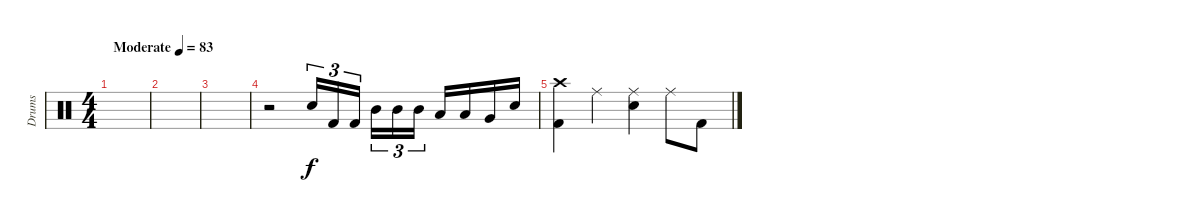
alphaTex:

\track ("Drums" "Drums") {instrument percussion}
\staff
\articulation defaults
\ts (4 4)
\tempo (83 "Moderate")
\clef neutral
\ks c
|
|
|
r.2 "Electric Snare (hit)".16{tu (3 2)} "Kick (hit) 2".16{tu (3 2)} "Kick (hit) 2".16{tu (3 2) beam splitsecondary} "Mid Tom (hit)".16{tu (3 2)} "Mid Tom (hit)".16{tu (3 2)} "Mid Tom (hit)".16{tu (3 2)} "Low Tom (hit)".16 "Low Tom (hit)".16 "Very Low Tom (hit)".16 "Electric Snare (hit)".16 |
("Crash high (hit)" "Kick (hit) 2").4 "Ride (middle)".4 ("Ride (middle)" "Electric Snare (hit)").4 "Ride (middle)".8 "Kick (hit) 2".8
